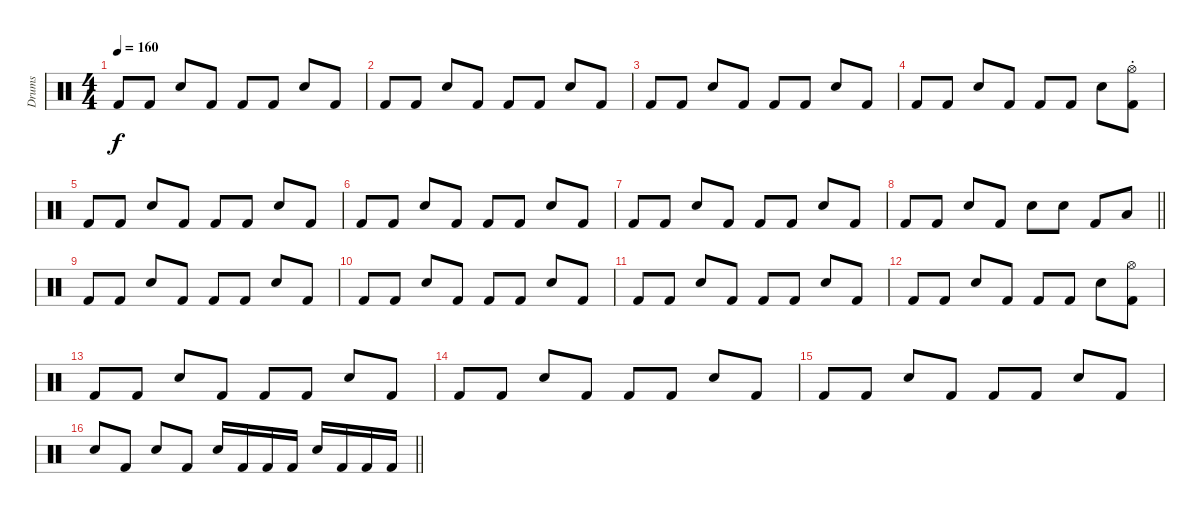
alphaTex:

\track ("Drums" "Drums") {instrument percussion}
\staff {score}
\articulation defaults
\ts (4 4)
\tempo 160
\clef neutral
\ks c "Kick (hit) 2".8{dy f} "Kick (hit) 2".8 "Snare (hit) 2".8 "Kick (hit) 2".8 "Kick (hit) 2".8 "Kick (hit) 2".8 "Snare (hit) 2".8 "Kick (hit) 2".8
|
"Kick (hit) 2".8 "Kick (hit) 2".8 "Snare (hit) 2".8 "Kick (hit) 2".8 "Kick (hit) 2".8 "Kick (hit) 2".8 "Snare (hit) 2".8 "Kick (hit) 2".8 |
"Kick (hit) 2".8 "Kick (hit) 2".8 "Snare (hit) 2".8 "Kick (hit) 2".8 "Kick (hit) 2".8 "Kick (hit) 2".8 "Snare (hit) 2".8 "Kick (hit) 2".8 |
"Kick (hit) 2".8 "Kick (hit) 2".8 "Snare (hit) 2".8 "Kick (hit) 2".8 "Kick (hit) 2".8 "Kick (hit) 2".8 "Snare (hit) 2".8 ("Hi-Hat (open)"{st} "Kick (hit) 2").8 |
"Kick (hit) 2".8 "Kick (hit) 2".8 "Snare (hit) 2".8 "Kick (hit) 2".8 "Kick (hit) 2".8 "Kick (hit) 2".8 "Snare (hit) 2".8 "Kick (hit) 2".8 |
"Kick (hit) 2".8 "Kick (hit) 2".8 "Snare (hit) 2".8 "Kick (hit) 2".8 "Kick (hit) 2".8 "Kick (hit) 2".8 "Snare (hit) 2".8 "Kick (hit) 2".8 |
"Kick (hit) 2".8 "Kick (hit) 2".8 "Snare (hit) 2".8 "Kick (hit) 2".8 "Kick (hit) 2".8 "Kick (hit) 2".8 "Snare (hit) 2".8 "Kick (hit) 2".8 |
\barLineRight lightlight "Kick (hit) 2".8 "Kick (hit) 2".8 "Snare (hit) 2".8 "Kick (hit) 2".8 "Snare (hit) 2".8 "Snare (hit) 2".8 "Kick (hit) 2".8 "Low Floor Tom (hit)".8
|
"Kick (hit) 2".8 "Kick (hit) 2".8 "Snare (hit) 2".8 "Kick (hit) 2".8 "Kick (hit) 2".8 "Kick (hit) 2".8 "Snare (hit) 2".8 "Kick (hit) 2".8 |
"Kick (hit) 2".8 "Kick (hit) 2".8 "Snare (hit) 2".8 "Kick (hit) 2".8 "Kick (hit) 2".8 "Kick (hit) 2".8 "Snare (hit) 2".8 "Kick (hit) 2".8 |
"Kick (hit) 2".8 "Kick (hit) 2".8 "Snare (hit) 2".8 "Kick (hit) 2".8 "Kick (hit) 2".8 "Kick (hit) 2".8 "Snare (hit) 2".8 "Kick (hit) 2".8 |
"Kick (hit) 2".8 "Kick (hit) 2".8 "Snare (hit) 2".8 "Kick (hit) 2".8 "Kick (hit) 2".8 "Kick (hit) 2".8 "Snare (hit) 2".8 ("Hi-Hat (open)" "Kick (hit) 2").8 |
"Kick (hit) 2".8 "Kick (hit) 2".8 "Snare (hit) 2".8 "Kick (hit) 2".8 "Kick (hit) 2".8 "Kick (hit) 2".8 "Snare (hit) 2".8 "Kick (hit) 2".8 |
"Kick (hit) 2".8 "Kick (hit) 2".8 "Snare (hit) 2".8 "Kick (hit) 2".8 "Kick (hit) 2".8 "Kick (hit) 2".8 "Snare (hit) 2".8 "Kick (hit) 2".8 |
"Kick (hit) 2".8 "Kick (hit) 2".8 "Snare (hit) 2".8 "Kick (hit) 2".8 "Kick (hit) 2".8 "Kick (hit) 2".8 "Snare (hit) 2".8 "Kick (hit) 2".8 |
\barLineRight lightlight "Snare (hit) 2".8 "Kick (hit) 2".8 "Snare (hit) 2".8 "Kick (hit) 2".8 "Snare (hit) 2".16 "Kick (hit) 2".16 "Kick (hit) 2".16 "Kick (hit) 2".16 "Snare (hit) 2".16 "Kick (hit) 2".16 "Kick (hit) 2".16 "Kick (hit) 2".16
